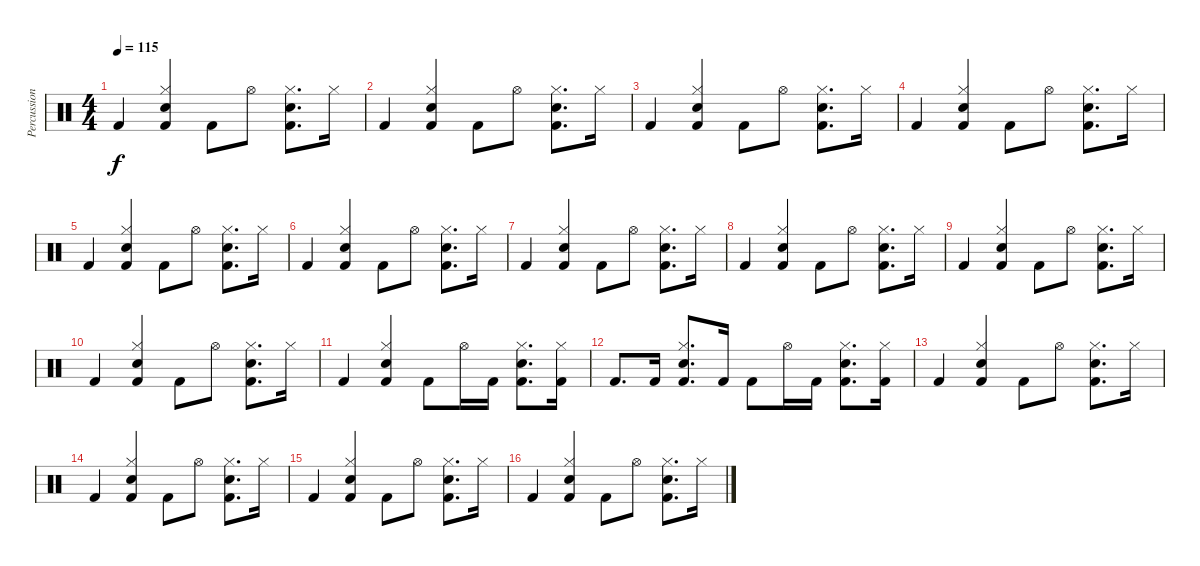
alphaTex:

\track ("Percussion" "Percussion") {instrument percussion}
\staff {score}
\articulation defaults
\ts (4 4)
\tempo 115
\clef neutral
\ks c "Kick (hit) 2".4{dy f}
("Hi-Hat (closed)" "Hand Clap (hit)" "Kick (hit) 2").4 "Kick (hit) 2".8 "Hi-Hat (open)".8 ("Hi-Hat (closed)" "Hand Clap (hit)" "Kick (hit) 2").8{d} "Hi-Hat (closed)".16 |
"Kick (hit) 2".4 ("Hi-Hat (closed)" "Hand Clap (hit)" "Kick (hit) 2").4 "Kick (hit) 2".8 "Hi-Hat (open)".8 ("Hi-Hat (closed)" "Hand Clap (hit)" "Kick (hit) 2").8{d} "Hi-Hat (closed)".16 |
"Kick (hit) 2".4 ("Hi-Hat (closed)" "Hand Clap (hit)" "Kick (hit) 2").4 "Kick (hit) 2".8 "Hi-Hat (open)".8 ("Hi-Hat (closed)" "Hand Clap (hit)" "Kick (hit) 2").8{d} "Hi-Hat (closed)".16 |
"Kick (hit) 2".4 ("Hi-Hat (closed)" "Hand Clap (hit)" "Kick (hit) 2").4 "Kick (hit) 2".8 "Hi-Hat (open)".8 ("Hi-Hat (closed)" "Hand Clap (hit)" "Kick (hit) 2").8{d} "Hi-Hat (closed)".16 |
"Kick (hit) 2".4 ("Hi-Hat (closed)" "Hand Clap (hit)" "Kick (hit) 2").4 "Kick (hit) 2".8 "Hi-Hat (open)".8 ("Hi-Hat (closed)" "Hand Clap (hit)" "Kick (hit) 2").8{d} "Hi-Hat (closed)".16 |
"Kick (hit) 2".4 ("Hi-Hat (closed)" "Hand Clap (hit)" "Kick (hit) 2").4 "Kick (hit) 2".8 "Hi-Hat (open)".8 ("Hi-Hat (closed)" "Hand Clap (hit)" "Kick (hit) 2").8{d} "Hi-Hat (closed)".16 |
"Kick (hit) 2".4 ("Hi-Hat (closed)" "Hand Clap (hit)" "Kick (hit) 2").4 "Kick (hit) 2".8 "Hi-Hat (open)".8 ("Hi-Hat (closed)" "Hand Clap (hit)" "Kick (hit) 2").8{d} "Hi-Hat (closed)".16 |
"Kick (hit) 2".4 ("Hi-Hat (closed)" "Hand Clap (hit)" "Kick (hit) 2").4 "Kick (hit) 2".8 "Hi-Hat (open)".8 ("Hi-Hat (closed)" "Hand Clap (hit)" "Kick (hit) 2").8{d} "Hi-Hat (closed)".16 |
"Kick (hit) 2".4 ("Hi-Hat (closed)" "Hand Clap (hit)" "Kick (hit) 2").4 "Kick (hit) 2".8 "Hi-Hat (open)".8 ("Hi-Hat (closed)" "Hand Clap (hit)" "Kick (hit) 2").8{d} "Hi-Hat (closed)".16 |
"Kick (hit) 2".4 ("Hi-Hat (closed)" "Hand Clap (hit)" "Kick (hit) 2").4 "Kick (hit) 2".8 "Hi-Hat (open)".8 ("Hi-Hat (closed)" "Hand Clap (hit)" "Kick (hit) 2").8{d} "Hi-Hat (closed)".16 |
"Kick (hit) 2".4 ("Hi-Hat (closed)" "Hand Clap (hit)" "Kick (hit) 2").4 "Kick (hit) 2".8 "Hi-Hat (open)".16 "Kick (hit) 2".16 ("Hi-Hat (closed)" "Hand Clap (hit)" "Kick (hit) 2").8{d} ("Hi-Hat (closed)" "Kick (hit) 2").16 |
"Kick (hit) 2".8{d} "Kick (hit) 2".16 ("Hi-Hat (closed)" "Hand Clap (hit)" "Kick (hit) 2").8{d} "Kick (hit) 2".16 "Kick (hit) 2".8 "Hi-Hat (open)".16 "Kick (hit) 2".16 ("Hi-Hat (closed)" "Hand Clap (hit)" "Kick (hit) 2").8{d} ("Hi-Hat (closed)" "Kick (hit) 2").16 |
"Kick (hit) 2".4 ("Hi-Hat (closed)" "Hand Clap (hit)" "Kick (hit) 2").4 "Kick (hit) 2".8 "Hi-Hat (open)".8 ("Hi-Hat (closed)" "Hand Clap (hit)" "Kick (hit) 2").8{d} "Hi-Hat (closed)".16 |
"Kick (hit) 2".4 ("Hi-Hat (closed)" "Hand Clap (hit)" "Kick (hit) 2").4 "Kick (hit) 2".8 "Hi-Hat (open)".8 ("Hi-Hat (closed)" "Hand Clap (hit)" "Kick (hit) 2").8{d} "Hi-Hat (closed)".16 |
"Kick (hit) 2".4 ("Hi-Hat (closed)" "Hand Clap (hit)" "Kick (hit) 2").4 "Kick (hit) 2".8 "Hi-Hat (open)".8 ("Hi-Hat (closed)" "Hand Clap (hit)" "Kick (hit) 2").8{d} "Hi-Hat (closed)".16 |
"Kick (hit) 2".4 ("Hi-Hat (closed)" "Hand Clap (hit)" "Kick (hit) 2").4 "Kick (hit) 2".8 "Hi-Hat (open)".8 ("Hi-Hat (closed)" "Hand Clap (hit)" "Kick (hit) 2").8{d} "Hi-Hat (closed)".16
